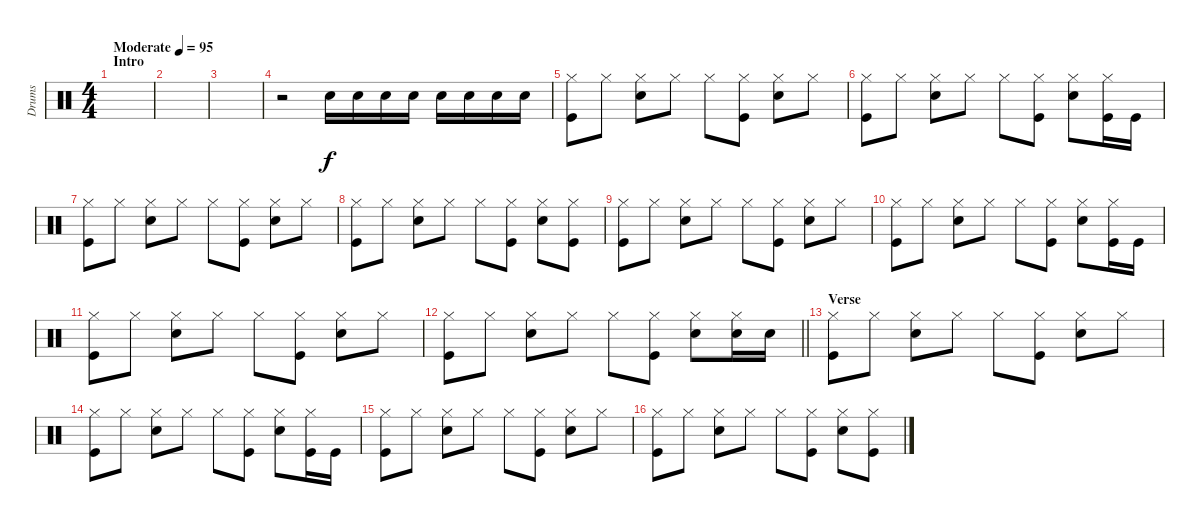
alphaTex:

\track ("Drums" "Drums") {instrument percussion}
\staff {score}
\articulation defaults
\ts (4 4)
\section ("" "Intro ")
\tempo (95 "Moderate")
\clef neutral
\ks c
|
|
|
r.2 "Electric Snare (hit)".16 "Electric Snare (hit)".16 "Electric Snare (hit)".16 "Electric Snare (hit)".16 "Electric Snare (hit)".16 "Electric Snare (hit)".16 "Electric Snare (hit)".16 "Electric Snare (hit)".16 |
("Hi-Hat (closed)" "Kick (hit)").8 "Hi-Hat (closed)".8 ("Hi-Hat (closed)" "Electric Snare (hit)").8 "Hi-Hat (closed)".8 "Hi-Hat (closed)".8 ("Hi-Hat (closed)" "Kick (hit)").8 ("Hi-Hat (closed)" "Electric Snare (hit)").8 "Hi-Hat (closed)".8 |
("Hi-Hat (closed)" "Kick (hit)").8 "Hi-Hat (closed)".8 ("Hi-Hat (closed)" "Electric Snare (hit)").8 "Hi-Hat (closed)".8 "Hi-Hat (closed)".8 ("Hi-Hat (closed)" "Kick (hit)").8 ("Hi-Hat (closed)" "Electric Snare (hit)").8 ("Hi-Hat (closed)" "Kick (hit)").16 "Kick (hit)".16 |
("Hi-Hat (closed)" "Kick (hit)").8 "Hi-Hat (closed)".8 ("Hi-Hat (closed)" "Electric Snare (hit)").8 "Hi-Hat (closed)".8 "Hi-Hat (closed)".8 ("Hi-Hat (closed)" "Kick (hit)").8 ("Hi-Hat (closed)" "Electric Snare (hit)").8 "Hi-Hat (closed)".8 |
("Hi-Hat (closed)" "Kick (hit)").8 "Hi-Hat (closed)".8 ("Hi-Hat (closed)" "Electric Snare (hit)").8 "Hi-Hat (closed)".8 "Hi-Hat (closed)".8 ("Hi-Hat (closed)" "Kick (hit)").8 ("Hi-Hat (closed)" "Electric Snare (hit)").8 ("Hi-Hat (closed)" "Kick (hit)").8 |
("Hi-Hat (closed)" "Kick (hit)").8 "Hi-Hat (closed)".8 ("Hi-Hat (closed)" "Electric Snare (hit)").8 "Hi-Hat (closed)".8 "Hi-Hat (closed)".8 ("Hi-Hat (closed)" "Kick (hit)").8 ("Hi-Hat (closed)" "Electric Snare (hit)").8 "Hi-Hat (closed)".8 |
("Hi-Hat (closed)" "Kick (hit)").8 "Hi-Hat (closed)".8 ("Hi-Hat (closed)" "Electric Snare (hit)").8 "Hi-Hat (closed)".8 "Hi-Hat (closed)".8 ("Hi-Hat (closed)" "Kick (hit)").8 ("Hi-Hat (closed)" "Electric Snare (hit)").8 ("Hi-Hat (closed)" "Kick (hit)").16 "Kick (hit)".16 |
("Hi-Hat (closed)" "Kick (hit)").8 "Hi-Hat (closed)".8 ("Hi-Hat (closed)" "Electric Snare (hit)").8 "Hi-Hat (closed)".8 "Hi-Hat (closed)".8 ("Hi-Hat (closed)" "Kick (hit)").8 ("Hi-Hat (closed)" "Electric Snare (hit)").8 "Hi-Hat (closed)".8 |
\barLineRight lightlight
("Hi-Hat (closed)" "Kick (hit)").8 "Hi-Hat (closed)".8 ("Hi-Hat (closed)" "Electric Snare (hit)").8 "Hi-Hat (closed)".8 "Hi-Hat (closed)".8 ("Hi-Hat (closed)" "Kick (hit)").8 ("Hi-Hat (closed)" "Electric Snare (hit)").8 ("Hi-Hat (closed)" "Electric Snare (hit)").16 "Electric Snare (hit)".16 |
\section ("" "Verse ")
("Hi-Hat (closed)" "Kick (hit)").8 "Hi-Hat (closed)".8 ("Hi-Hat (closed)" "Electric Snare (hit)").8 "Hi-Hat (closed)".8 "Hi-Hat (closed)".8 ("Hi-Hat (closed)" "Kick (hit)").8 ("Hi-Hat (closed)" "Electric Snare (hit)").8 "Hi-Hat (closed)".8 |
("Hi-Hat (closed)" "Kick (hit)").8 "Hi-Hat (closed)".8 ("Hi-Hat (closed)" "Electric Snare (hit)").8 "Hi-Hat (closed)".8 "Hi-Hat (closed)".8 ("Hi-Hat (closed)" "Kick (hit)").8 ("Hi-Hat (closed)" "Electric Snare (hit)").8 ("Hi-Hat (closed)" "Kick (hit)").16 "Kick (hit)".16 |
("Hi-Hat (closed)" "Kick (hit)").8 "Hi-Hat (closed)".8 ("Hi-Hat (closed)" "Electric Snare (hit)").8 "Hi-Hat (closed)".8 "Hi-Hat (closed)".8 ("Hi-Hat (closed)" "Kick (hit)").8 ("Hi-Hat (closed)" "Electric Snare (hit)").8 "Hi-Hat (closed)".8 |
("Hi-Hat (closed)" "Kick (hit)").8 "Hi-Hat (closed)".8 ("Hi-Hat (closed)" "Electric Snare (hit)").8 "Hi-Hat (closed)".8 "Hi-Hat (closed)".8 ("Hi-Hat (closed)" "Kick (hit)").8 ("Hi-Hat (closed)" "Electric Snare (hit)").8 ("Hi-Hat (closed)" "Kick (hit)").8
